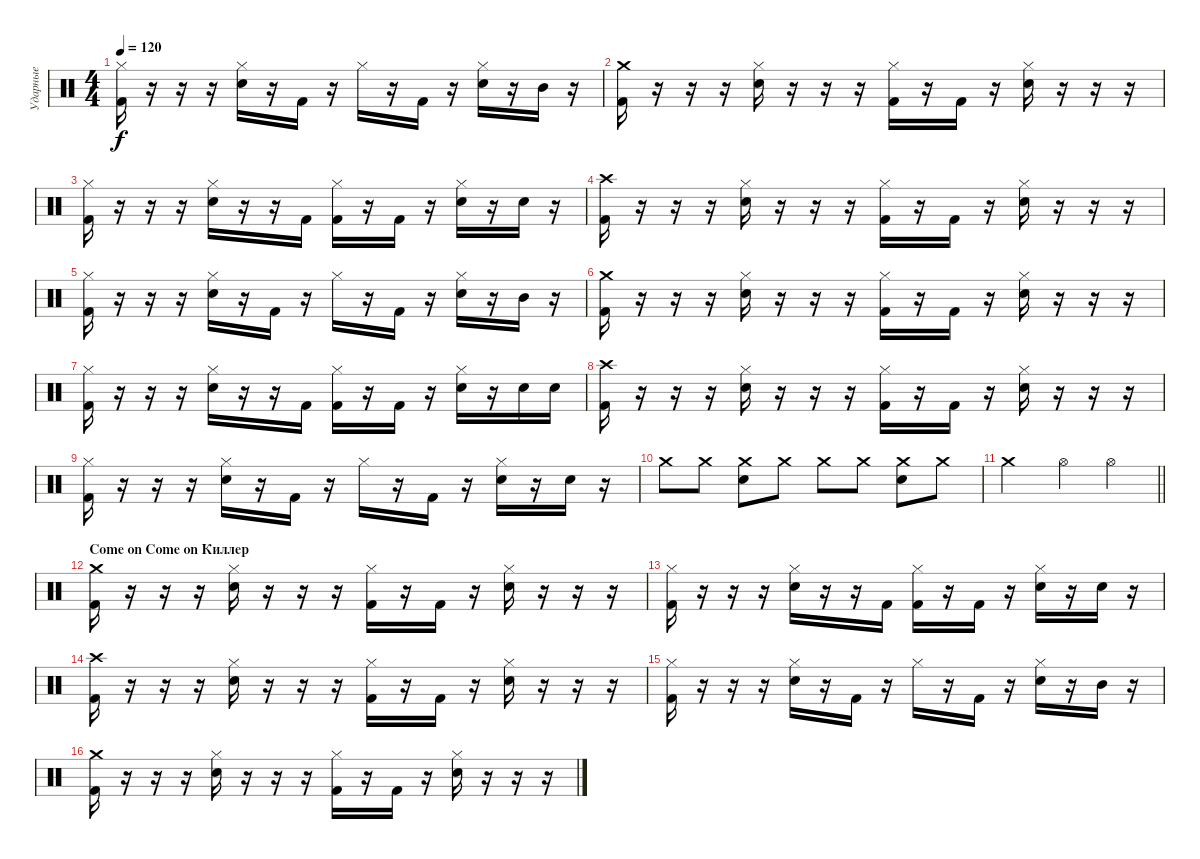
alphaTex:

\track ("Ударные" "Ударные") {instrument percussion}
\staff {score}
\articulation defaults
\ts (4 4)
\tempo 120
\clef neutral
\ks c
("Kick (hit) 2" "Hi-Hat (closed)").16{dy f} r.16 r.16 r.16 ("Hi-Hat (closed)" "Electric Snare (hit)").16 r.16 "Kick (hit) 2".16 r.16 "Hi-Hat (closed)".16 r.16 "Kick (hit) 2".16 r.16 ("Hi-Hat (closed)" "Electric Snare (hit)").16 r.16 "Mid Tom (hit)".16 r.16 |
("Kick (hit) 2" "Crash medium (hit)").16 r.16 r.16 r.16 ("Hi-Hat (closed)" "Electric Snare (hit)").16 r.16 r.16 r.16 ("Hi-Hat (closed)" "Kick (hit) 2").16 r.16 "Kick (hit) 2".16 r.16 ("Hi-Hat (closed)" "Electric Snare (hit)").16 r.16 r.16 r.16 |
("Kick (hit) 2" "Hi-Hat (closed)").16 r.16 r.16 r.16 ("Hi-Hat (closed)" "Electric Snare (hit)").16 r.16 r.16 "Kick (hit) 2".16 ("Hi-Hat (closed)" "Kick (hit) 2").16 r.16 "Kick (hit) 2".16 r.16 ("Hi-Hat (closed)" "Electric Snare (hit)").16 r.16 "Electric Snare (hit)".16 r.16 |
("Kick (hit) 2" "Crash high (hit)").16 r.16 r.16 r.16 ("Hi-Hat (closed)" "Electric Snare (hit)").16 r.16 r.16 r.16 ("Hi-Hat (closed)" "Kick (hit) 2").16 r.16 "Kick (hit) 2".16 r.16 ("Hi-Hat (closed)" "Electric Snare (hit)").16 r.16 r.16 r.16 |
("Kick (hit) 2" "Hi-Hat (closed)").16 r.16 r.16 r.16 ("Hi-Hat (closed)" "Electric Snare (hit)").16 r.16 "Kick (hit) 2".16 r.16 "Hi-Hat (closed)".16 r.16 "Kick (hit) 2".16 r.16 ("Hi-Hat (closed)" "Electric Snare (hit)").16 r.16 "Mid Tom (hit)".16 r.16 |
("Kick (hit) 2" "Crash medium (hit)").16 r.16 r.16 r.16 ("Hi-Hat (closed)" "Electric Snare (hit)").16 r.16 r.16 r.16 ("Hi-Hat (closed)" "Kick (hit) 2").16 r.16 "Kick (hit) 2".16 r.16 ("Hi-Hat (closed)" "Electric Snare (hit)").16 r.16 r.16 r.16 |
("Kick (hit) 2" "Hi-Hat (closed)").16 r.16 r.16 r.16 ("Hi-Hat (closed)" "Electric Snare (hit)").16 r.16 r.16 "Kick (hit) 2".16 ("Hi-Hat (closed)" "Kick (hit) 2").16 r.16 "Kick (hit) 2".16 r.16 ("Hi-Hat (closed)" "Electric Snare (hit)").16 r.16 "Electric Snare (hit)".16 "Electric Snare (hit)".16 |
("Kick (hit) 2" "Crash high (hit)").16 r.16 r.16 r.16 ("Hi-Hat (closed)" "Electric Snare (hit)").16 r.16 r.16 r.16 ("Hi-Hat (closed)" "Kick (hit) 2").16 r.16 "Kick (hit) 2".16 r.16 ("Hi-Hat (closed)" "Electric Snare (hit)").16 r.16 r.16 r.16 |
("Kick (hit) 2" "Hi-Hat (closed)").16 r.16 r.16 r.16 ("Hi-Hat (closed)" "Electric Snare (hit)").16 r.16 "Kick (hit) 2".16 r.16 "Hi-Hat (closed)".16 r.16 "Kick (hit) 2".16 r.16 ("Hi-Hat (closed)" "Electric Snare (hit)").16 r.16 "Electric Snare (hit)".16 r.16 |
"Crash medium (hit)".8 "Crash medium (hit)".8 ("Crash medium (hit)" "Electric Snare (hit)").8 "Crash medium (hit)".8 "Crash medium (hit)".8 "Crash medium (hit)".8 ("Crash medium (hit)" "Electric Snare (hit)").8 "Crash medium (hit)".8 |
\barLineRight lightlight "Crash medium (hit)".2 "Hi-Hat (open)".4 "Hi-Hat (open)".4
|
\section ("" "Come on Come on Киллер")
("Kick (hit) 2" "Crash medium (hit)").16 r.16 r.16 r.16 ("Hi-Hat (closed)" "Electric Snare (hit)").16 r.16 r.16 r.16 ("Hi-Hat (closed)" "Kick (hit) 2").16 r.16 "Kick (hit) 2".16 r.16 ("Hi-Hat (closed)" "Electric Snare (hit)").16 r.16 r.16 r.16 |
("Kick (hit) 2" "Hi-Hat (closed)").16 r.16 r.16 r.16 ("Hi-Hat (closed)" "Electric Snare (hit)").16 r.16 r.16 "Kick (hit) 2".16 ("Hi-Hat (closed)" "Kick (hit) 2").16 r.16 "Kick (hit) 2".16 r.16 ("Hi-Hat (closed)" "Electric Snare (hit)").16 r.16 "Electric Snare (hit)".16 r.16 |
("Kick (hit) 2" "Crash high (hit)").16 r.16 r.16 r.16 ("Hi-Hat (closed)" "Electric Snare (hit)").16 r.16 r.16 r.16 ("Hi-Hat (closed)" "Kick (hit) 2").16 r.16 "Kick (hit) 2".16 r.16 ("Hi-Hat (closed)" "Electric Snare (hit)").16 r.16 r.16 r.16 |
("Kick (hit) 2" "Hi-Hat (closed)").16 r.16 r.16 r.16 ("Hi-Hat (closed)" "Electric Snare (hit)").16 r.16 "Kick (hit) 2".16 r.16 "Hi-Hat (closed)".16 r.16 "Kick (hit) 2".16 r.16 ("Hi-Hat (closed)" "Electric Snare (hit)").16 r.16 "Mid Tom (hit)".16 r.16 |
("Kick (hit) 2" "Crash medium (hit)").16 r.16 r.16 r.16 ("Hi-Hat (closed)" "Electric Snare (hit)").16 r.16 r.16 r.16 ("Hi-Hat (closed)" "Kick (hit) 2").16 r.16 "Kick (hit) 2".16 r.16 ("Hi-Hat (closed)" "Electric Snare (hit)").16 r.16 r.16 r.16
